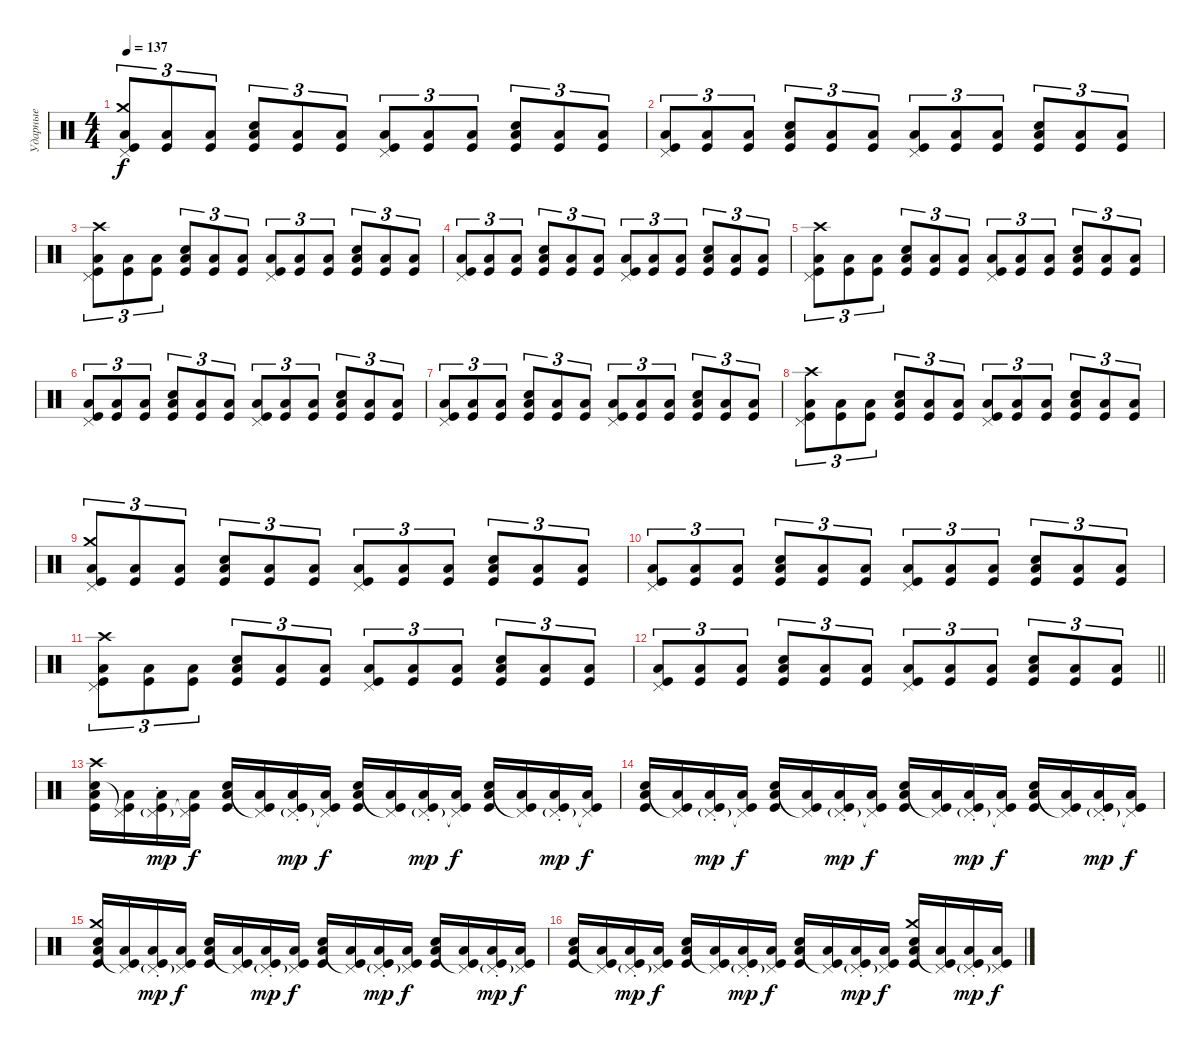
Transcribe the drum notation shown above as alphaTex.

\track ("Ударные" "Ударные") {instrument percussion}
\staff {score}
\articulation defaults
\ts (4 4)
\tempo 137
\clef neutral
\ks c
("Kick (hit)" "Low Tom (hit)" "Crash medium (hit)" "Pedal Hi-Hat (hit)").8{tu (3 2) dy f} ("Kick (hit)" "Low Tom (hit)").8{tu (3 2)} ("Kick (hit)" "Low Tom (hit)").8{tu (3 2)} ("Kick (hit)" "Low Tom (hit)" "Electric Snare (hit)").8{tu (3 2)} ("Kick (hit)" "Low Tom (hit)").8{tu (3 2)} ("Kick (hit)" "Low Tom (hit)").8{tu (3 2)} ("Kick (hit)" "Low Tom (hit)" "Pedal Hi-Hat (hit)").8{tu (3 2)} ("Kick (hit)" "Low Tom (hit)").8{tu (3 2)} ("Kick (hit)" "Low Tom (hit)").8{tu (3 2)} ("Kick (hit)" "Low Tom (hit)" "Electric Snare (hit)").8{tu (3 2)} ("Kick (hit)" "Low Tom (hit)").8{tu (3 2)} ("Kick (hit)" "Low Tom (hit)").8{tu (3 2)} |
("Kick (hit)" "Low Tom (hit)" "Pedal Hi-Hat (hit)").8{tu (3 2)} ("Kick (hit)" "Low Tom (hit)").8{tu (3 2)} ("Kick (hit)" "Low Tom (hit)").8{tu (3 2)} ("Kick (hit)" "Low Tom (hit)" "Electric Snare (hit)").8{tu (3 2)} ("Kick (hit)" "Low Tom (hit)").8{tu (3 2)} ("Kick (hit)" "Low Tom (hit)").8{tu (3 2)} ("Kick (hit)" "Low Tom (hit)" "Pedal Hi-Hat (hit)").8{tu (3 2)} ("Kick (hit)" "Low Tom (hit)").8{tu (3 2)} ("Kick (hit)" "Low Tom (hit)").8{tu (3 2)} ("Kick (hit)" "Low Tom (hit)" "Electric Snare (hit)").8{tu (3 2)} ("Kick (hit)" "Low Tom (hit)").8{tu (3 2)} ("Kick (hit)" "Low Tom (hit)").8{tu (3 2)} |
("Kick (hit)" "Low Tom (hit)" "Crash high (hit)" "Pedal Hi-Hat (hit)").8{tu (3 2)} ("Kick (hit)" "Low Tom (hit)").8{tu (3 2)} ("Kick (hit)" "Low Tom (hit)").8{tu (3 2)} ("Kick (hit)" "Low Tom (hit)" "Electric Snare (hit)").8{tu (3 2)} ("Kick (hit)" "Low Tom (hit)").8{tu (3 2)} ("Kick (hit)" "Low Tom (hit)").8{tu (3 2)} ("Kick (hit)" "Low Tom (hit)" "Pedal Hi-Hat (hit)").8{tu (3 2)} ("Kick (hit)" "Low Tom (hit)").8{tu (3 2)} ("Kick (hit)" "Low Tom (hit)").8{tu (3 2)} ("Kick (hit)" "Low Tom (hit)" "Electric Snare (hit)").8{tu (3 2)} ("Kick (hit)" "Low Tom (hit)").8{tu (3 2)} ("Kick (hit)" "Low Tom (hit)").8{tu (3 2)} |
("Kick (hit)" "Low Tom (hit)" "Pedal Hi-Hat (hit)").8{tu (3 2)} ("Kick (hit)" "Low Tom (hit)").8{tu (3 2)} ("Kick (hit)" "Low Tom (hit)").8{tu (3 2)} ("Kick (hit)" "Low Tom (hit)" "Electric Snare (hit)").8{tu (3 2)} ("Kick (hit)" "Low Tom (hit)").8{tu (3 2)} ("Kick (hit)" "Low Tom (hit)").8{tu (3 2)} ("Kick (hit)" "Low Tom (hit)" "Pedal Hi-Hat (hit)").8{tu (3 2)} ("Kick (hit)" "Low Tom (hit)").8{tu (3 2)} ("Kick (hit)" "Low Tom (hit)").8{tu (3 2)} ("Kick (hit)" "Low Tom (hit)" "Electric Snare (hit)").8{tu (3 2)} ("Kick (hit)" "Low Tom (hit)").8{tu (3 2)} ("Kick (hit)" "Low Tom (hit)").8{tu (3 2)} |
("Kick (hit)" "Low Tom (hit)" "Crash high (hit)" "Pedal Hi-Hat (hit)").8{tu (3 2)} ("Kick (hit)" "Low Tom (hit)").8{tu (3 2)} ("Kick (hit)" "Low Tom (hit)").8{tu (3 2)} ("Kick (hit)" "Low Tom (hit)" "Electric Snare (hit)").8{tu (3 2)} ("Kick (hit)" "Low Tom (hit)").8{tu (3 2)} ("Kick (hit)" "Low Tom (hit)").8{tu (3 2)} ("Kick (hit)" "Low Tom (hit)" "Pedal Hi-Hat (hit)").8{tu (3 2)} ("Kick (hit)" "Low Tom (hit)").8{tu (3 2)} ("Kick (hit)" "Low Tom (hit)").8{tu (3 2)} ("Kick (hit)" "Low Tom (hit)" "Electric Snare (hit)").8{tu (3 2)} ("Kick (hit)" "Low Tom (hit)").8{tu (3 2)} ("Kick (hit)" "Low Tom (hit)").8{tu (3 2)} |
("Kick (hit)" "Low Tom (hit)" "Pedal Hi-Hat (hit)").8{tu (3 2)} ("Kick (hit)" "Low Tom (hit)").8{tu (3 2)} ("Kick (hit)" "Low Tom (hit)").8{tu (3 2)} ("Kick (hit)" "Low Tom (hit)" "Electric Snare (hit)").8{tu (3 2)} ("Kick (hit)" "Low Tom (hit)").8{tu (3 2)} ("Kick (hit)" "Low Tom (hit)").8{tu (3 2)} ("Kick (hit)" "Low Tom (hit)" "Pedal Hi-Hat (hit)").8{tu (3 2)} ("Kick (hit)" "Low Tom (hit)").8{tu (3 2)} ("Kick (hit)" "Low Tom (hit)").8{tu (3 2)} ("Kick (hit)" "Low Tom (hit)" "Electric Snare (hit)").8{tu (3 2)} ("Kick (hit)" "Low Tom (hit)").8{tu (3 2)} ("Kick (hit)" "Low Tom (hit)").8{tu (3 2)} |
("Kick (hit)" "Low Tom (hit)" "Pedal Hi-Hat (hit)").8{tu (3 2)} ("Kick (hit)" "Low Tom (hit)").8{tu (3 2)} ("Kick (hit)" "Low Tom (hit)").8{tu (3 2)} ("Kick (hit)" "Low Tom (hit)" "Electric Snare (hit)").8{tu (3 2)} ("Kick (hit)" "Low Tom (hit)").8{tu (3 2)} ("Kick (hit)" "Low Tom (hit)").8{tu (3 2)} ("Kick (hit)" "Low Tom (hit)" "Pedal Hi-Hat (hit)").8{tu (3 2)} ("Kick (hit)" "Low Tom (hit)").8{tu (3 2)} ("Kick (hit)" "Low Tom (hit)").8{tu (3 2)} ("Kick (hit)" "Low Tom (hit)" "Electric Snare (hit)").8{tu (3 2)} ("Kick (hit)" "Low Tom (hit)").8{tu (3 2)} ("Kick (hit)" "Low Tom (hit)").8{tu (3 2)} |
("Kick (hit)" "Low Tom (hit)" "Crash high (hit)" "Pedal Hi-Hat (hit)").8{tu (3 2)} ("Kick (hit)" "Low Tom (hit)").8{tu (3 2)} ("Kick (hit)" "Low Tom (hit)").8{tu (3 2)} ("Kick (hit)" "Low Tom (hit)" "Electric Snare (hit)").8{tu (3 2)} ("Kick (hit)" "Low Tom (hit)").8{tu (3 2)} ("Kick (hit)" "Low Tom (hit)").8{tu (3 2)} ("Kick (hit)" "Low Tom (hit)" "Pedal Hi-Hat (hit)").8{tu (3 2)} ("Kick (hit)" "Low Tom (hit)").8{tu (3 2)} ("Kick (hit)" "Low Tom (hit)").8{tu (3 2)} ("Kick (hit)" "Low Tom (hit)" "Electric Snare (hit)").8{tu (3 2)} ("Kick (hit)" "Low Tom (hit)").8{tu (3 2)} ("Kick (hit)" "Low Tom (hit)").8{tu (3 2)} |
("Kick (hit)" "Low Tom (hit)" "Crash medium (hit)" "Pedal Hi-Hat (hit)").8{tu (3 2)} ("Kick (hit)" "Low Tom (hit)").8{tu (3 2)} ("Kick (hit)" "Low Tom (hit)").8{tu (3 2)} ("Kick (hit)" "Low Tom (hit)" "Electric Snare (hit)").8{tu (3 2)} ("Kick (hit)" "Low Tom (hit)").8{tu (3 2)} ("Kick (hit)" "Low Tom (hit)").8{tu (3 2)} ("Kick (hit)" "Low Tom (hit)" "Pedal Hi-Hat (hit)").8{tu (3 2)} ("Kick (hit)" "Low Tom (hit)").8{tu (3 2)} ("Kick (hit)" "Low Tom (hit)").8{tu (3 2)} ("Kick (hit)" "Low Tom (hit)" "Electric Snare (hit)").8{tu (3 2)} ("Kick (hit)" "Low Tom (hit)").8{tu (3 2)} ("Kick (hit)" "Low Tom (hit)").8{tu (3 2)} |
("Kick (hit)" "Low Tom (hit)" "Pedal Hi-Hat (hit)").8{tu (3 2)} ("Kick (hit)" "Low Tom (hit)").8{tu (3 2)} ("Kick (hit)" "Low Tom (hit)").8{tu (3 2)} ("Kick (hit)" "Low Tom (hit)" "Electric Snare (hit)").8{tu (3 2)} ("Kick (hit)" "Low Tom (hit)").8{tu (3 2)} ("Kick (hit)" "Low Tom (hit)").8{tu (3 2)} ("Kick (hit)" "Low Tom (hit)" "Pedal Hi-Hat (hit)").8{tu (3 2)} ("Kick (hit)" "Low Tom (hit)").8{tu (3 2)} ("Kick (hit)" "Low Tom (hit)").8{tu (3 2)} ("Kick (hit)" "Low Tom (hit)" "Electric Snare (hit)").8{tu (3 2)} ("Kick (hit)" "Low Tom (hit)").8{tu (3 2)} ("Kick (hit)" "Low Tom (hit)").8{tu (3 2)} |
("Kick (hit)" "Low Tom (hit)" "Crash high (hit)" "Pedal Hi-Hat (hit)").8{tu (3 2)} ("Kick (hit)" "Low Tom (hit)").8{tu (3 2)} ("Kick (hit)" "Low Tom (hit)").8{tu (3 2)} ("Kick (hit)" "Low Tom (hit)" "Electric Snare (hit)").8{tu (3 2)} ("Kick (hit)" "Low Tom (hit)").8{tu (3 2)} ("Kick (hit)" "Low Tom (hit)").8{tu (3 2)} ("Kick (hit)" "Low Tom (hit)" "Pedal Hi-Hat (hit)").8{tu (3 2)} ("Kick (hit)" "Low Tom (hit)").8{tu (3 2)} ("Kick (hit)" "Low Tom (hit)").8{tu (3 2)} ("Kick (hit)" "Low Tom (hit)" "Electric Snare (hit)").8{tu (3 2)} ("Kick (hit)" "Low Tom (hit)").8{tu (3 2)} ("Kick (hit)" "Low Tom (hit)").8{tu (3 2)} |
\barLineRight lightlight
("Kick (hit)" "Low Tom (hit)" "Pedal Hi-Hat (hit)").8{tu (3 2)} ("Kick (hit)" "Low Tom (hit)").8{tu (3 2)} ("Kick (hit)" "Low Tom (hit)").8{tu (3 2)} ("Kick (hit)" "Low Tom (hit)" "Electric Snare (hit)").8{tu (3 2)} ("Kick (hit)" "Low Tom (hit)").8{tu (3 2)} ("Kick (hit)" "Low Tom (hit)").8{tu (3 2)} ("Kick (hit)" "Low Tom (hit)" "Pedal Hi-Hat (hit)").8{tu (3 2)} ("Kick (hit)" "Low Tom (hit)").8{tu (3 2)} ("Kick (hit)" "Low Tom (hit)").8{tu (3 2)} ("Kick (hit)" "Low Tom (hit)" "Electric Snare (hit)").8{tu (3 2)} ("Kick (hit)" "Low Tom (hit)").8{tu (3 2)} ("Kick (hit)" "Low Tom (hit)").8{tu (3 2)} |
("Kick (hit)" "Low Tom (hit)" "Electric Snare (hit)" "Crash high (hit)").16 ("Kick (hit)" "Low Tom (hit)" "Pedal Hi-Hat (hit)"{t}).16 ("Kick (hit)" "Low Tom (hit)" "Pedal Hi-Hat (hit)"{g st}).16{dy mp} ("Kick (hit)" "Low Tom (hit)" "Pedal Hi-Hat (hit)"{t}).16{dy f} ("Kick (hit)" "Low Tom (hit)" "Electric Snare (hit)").16 ("Kick (hit)" "Low Tom (hit)" "Pedal Hi-Hat (hit)"{t}).16 ("Kick (hit)" "Low Tom (hit)" "Pedal Hi-Hat (hit)"{g st}).16{dy mp} ("Kick (hit)" "Low Tom (hit)" "Pedal Hi-Hat (hit)"{t}).16{dy f} ("Kick (hit)" "Low Tom (hit)" "Electric Snare (hit)").16 ("Kick (hit)" "Low Tom (hit)" "Pedal Hi-Hat (hit)"{t}).16 ("Kick (hit)" "Low Tom (hit)" "Pedal Hi-Hat (hit)"{g st}).16{dy mp} ("Kick (hit)" "Low Tom (hit)" "Pedal Hi-Hat (hit)"{t}).16{dy f} ("Kick (hit)" "Low Tom (hit)" "Electric Snare (hit)").16 ("Kick (hit)" "Low Tom (hit)" "Pedal Hi-Hat (hit)"{t}).16 ("Kick (hit)" "Low Tom (hit)" "Pedal Hi-Hat (hit)"{g st}).16{dy mp} ("Kick (hit)" "Low Tom (hit)" "Pedal Hi-Hat (hit)"{t}).16{dy f} |
("Kick (hit)" "Low Tom (hit)" "Electric Snare (hit)").16 ("Kick (hit)" "Low Tom (hit)" "Pedal Hi-Hat (hit)"{t}).16 ("Kick (hit)" "Low Tom (hit)" "Pedal Hi-Hat (hit)"{g st}).16{dy mp} ("Kick (hit)" "Low Tom (hit)" "Pedal Hi-Hat (hit)"{t}).16{dy f} ("Kick (hit)" "Low Tom (hit)" "Electric Snare (hit)").16 ("Kick (hit)" "Low Tom (hit)" "Pedal Hi-Hat (hit)"{t}).16 ("Kick (hit)" "Low Tom (hit)" "Pedal Hi-Hat (hit)"{g st}).16{dy mp} ("Kick (hit)" "Low Tom (hit)" "Pedal Hi-Hat (hit)"{t}).16{dy f} ("Kick (hit)" "Low Tom (hit)" "Electric Snare (hit)").16 ("Kick (hit)" "Low Tom (hit)" "Pedal Hi-Hat (hit)"{t}).16 ("Kick (hit)" "Low Tom (hit)" "Pedal Hi-Hat (hit)"{g st}).16{dy mp} ("Kick (hit)" "Low Tom (hit)" "Pedal Hi-Hat (hit)"{t}).16{dy f} ("Kick (hit)" "Low Tom (hit)" "Electric Snare (hit)").16 ("Kick (hit)" "Low Tom (hit)" "Pedal Hi-Hat (hit)"{t}).16 ("Kick (hit)" "Low Tom (hit)" "Pedal Hi-Hat (hit)"{g st}).16{dy mp} ("Kick (hit)" "Low Tom (hit)" "Pedal Hi-Hat (hit)"{t}).16{dy f} |
("Kick (hit)" "Low Tom (hit)" "Electric Snare (hit)" "Crash medium (hit)").16 ("Kick (hit)" "Low Tom (hit)" "Pedal Hi-Hat (hit)"{t}).16 ("Kick (hit)" "Low Tom (hit)" "Pedal Hi-Hat (hit)"{g st}).16{dy mp} ("Kick (hit)" "Low Tom (hit)" "Pedal Hi-Hat (hit)"{t}).16{dy f} ("Kick (hit)" "Low Tom (hit)" "Electric Snare (hit)").16 ("Kick (hit)" "Low Tom (hit)" "Pedal Hi-Hat (hit)"{t}).16 ("Kick (hit)" "Low Tom (hit)" "Pedal Hi-Hat (hit)"{g st}).16{dy mp} ("Kick (hit)" "Low Tom (hit)" "Pedal Hi-Hat (hit)"{t}).16{dy f} ("Kick (hit)" "Low Tom (hit)" "Electric Snare (hit)").16 ("Kick (hit)" "Low Tom (hit)" "Pedal Hi-Hat (hit)"{t}).16 ("Kick (hit)" "Low Tom (hit)" "Pedal Hi-Hat (hit)"{g st}).16{dy mp} ("Kick (hit)" "Low Tom (hit)" "Pedal Hi-Hat (hit)"{t}).16{dy f} ("Kick (hit)" "Low Tom (hit)" "Electric Snare (hit)").16 ("Kick (hit)" "Low Tom (hit)" "Pedal Hi-Hat (hit)"{t}).16 ("Kick (hit)" "Low Tom (hit)" "Pedal Hi-Hat (hit)"{g st}).16{dy mp} ("Kick (hit)" "Low Tom (hit)" "Pedal Hi-Hat (hit)"{t}).16{dy f} |
("Kick (hit)" "Low Tom (hit)" "Electric Snare (hit)").16 ("Kick (hit)" "Low Tom (hit)" "Pedal Hi-Hat (hit)"{t}).16 ("Kick (hit)" "Low Tom (hit)" "Pedal Hi-Hat (hit)"{g st}).16{dy mp} ("Kick (hit)" "Low Tom (hit)" "Pedal Hi-Hat (hit)"{t}).16{dy f} ("Kick (hit)" "Low Tom (hit)" "Electric Snare (hit)").16 ("Kick (hit)" "Low Tom (hit)" "Pedal Hi-Hat (hit)"{t}).16 ("Kick (hit)" "Low Tom (hit)" "Pedal Hi-Hat (hit)"{g st}).16{dy mp} ("Kick (hit)" "Low Tom (hit)" "Pedal Hi-Hat (hit)"{t}).16{dy f} ("Kick (hit)" "Low Tom (hit)" "Electric Snare (hit)").16 ("Kick (hit)" "Low Tom (hit)" "Pedal Hi-Hat (hit)"{t}).16 ("Kick (hit)" "Low Tom (hit)" "Pedal Hi-Hat (hit)"{g st}).16{dy mp} ("Kick (hit)" "Low Tom (hit)" "Pedal Hi-Hat (hit)"{t}).16{dy f} ("Kick (hit)" "Low Tom (hit)" "Electric Snare (hit)" "Crash medium (hit)").16 ("Kick (hit)" "Low Tom (hit)" "Pedal Hi-Hat (hit)"{t}).16 ("Kick (hit)" "Low Tom (hit)" "Pedal Hi-Hat (hit)"{g st}).16{dy mp} ("Kick (hit)" "Low Tom (hit)" "Pedal Hi-Hat (hit)"{t}).16{dy f}
